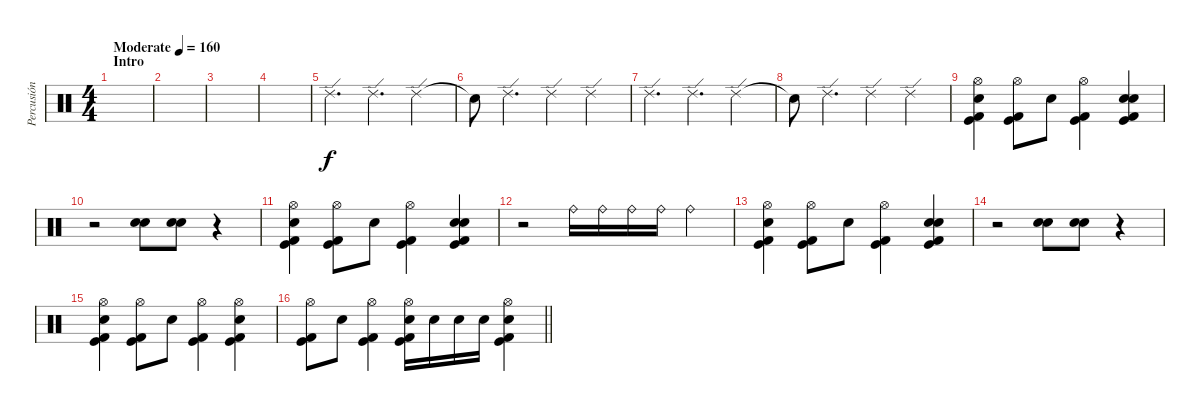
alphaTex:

\track ("Percusión" "Percusión") {instrument percussion}
\staff {score}
\articulation defaults
\ts (4 4)
\section ("" "Intro")
\tempo (160 "Moderate")
\clef neutral
\ks c
|
|
|
|
"Ride (edge) 2".4{d} "Ride (edge) 2".4{d} "Ride (edge) 2".4 |
"Snare (hit)"{t}.8 "Ride (edge) 2".4{d} "Ride (edge) 2".4 "Ride (edge) 2".4 |
"Ride (edge) 2".4{d} "Ride (edge) 2".4{d} "Ride (edge) 2".4 |
"Snare (hit)"{t}.8 "Ride (edge) 2".4{d} "Ride (edge) 2".4 "Ride (edge) 2".4 |
("Hi-Hat (open)" "Electric Snare (hit)" "Kick (hit)" "Kick (hit) 2").4 ("Hi-Hat (open)" "Kick (hit)" "Kick (hit) 2").8 "Electric Snare (hit)".8 ("Hi-Hat (open)" "Kick (hit)" "Kick (hit) 2").4 ("Electric Snare (hit)" "Electric Snare (hit)" "Kick (hit)" "Kick (hit) 2").4 |
r.2 ("Electric Snare (hit)" "Electric Snare (hit)").8 ("Electric Snare (hit)" "Electric Snare (hit)").8 r.4 |
("Hi-Hat (open)" "Electric Snare (hit)" "Kick (hit)" "Kick (hit) 2").4 ("Hi-Hat (open)" "Kick (hit)" "Kick (hit) 2").8 "Electric Snare (hit)".8 ("Hi-Hat (open)" "Kick (hit)" "Kick (hit) 2").4 ("Electric Snare (hit)" "Electric Snare (hit)" "Kick (hit)" "Kick (hit) 2").4 |
r.2 "Ride (bell)".16 "Ride (bell)".16 "Ride (bell)".16 "Ride (bell)".16 "Ride (bell)".4 |
("Hi-Hat (open)" "Electric Snare (hit)" "Kick (hit)" "Kick (hit) 2").4 ("Hi-Hat (open)" "Kick (hit)" "Kick (hit) 2").8 "Electric Snare (hit)".8 ("Hi-Hat (open)" "Kick (hit)" "Kick (hit) 2").4 ("Electric Snare (hit)" "Electric Snare (hit)" "Kick (hit)" "Kick (hit) 2").4 |
r.2 ("Electric Snare (hit)" "Electric Snare (hit)").8 ("Electric Snare (hit)" "Electric Snare (hit)").8 r.4 |
("Hi-Hat (open)" "Electric Snare (hit)" "Kick (hit)" "Kick (hit) 2").4 ("Hi-Hat (open)" "Kick (hit)" "Kick (hit) 2").8 "Electric Snare (hit)".8 ("Hi-Hat (open)" "Kick (hit)" "Kick (hit) 2").4 ("Hi-Hat (open)" "Electric Snare (hit)" "Kick (hit)" "Kick (hit) 2").4 |
\barLineRight lightlight
("Hi-Hat (open)" "Kick (hit)" "Kick (hit) 2").8 "Electric Snare (hit)".8 ("Hi-Hat (open)" "Kick (hit)" "Kick (hit) 2").4 ("Hi-Hat (open)" "Electric Snare (hit)" "Kick (hit)" "Kick (hit) 2").16 "Electric Snare (hit)".16 "Electric Snare (hit)".16 "Electric Snare (hit)".16 ("Hi-Hat (open)" "Electric Snare (hit)" "Kick (hit)" "Kick (hit) 2").4
